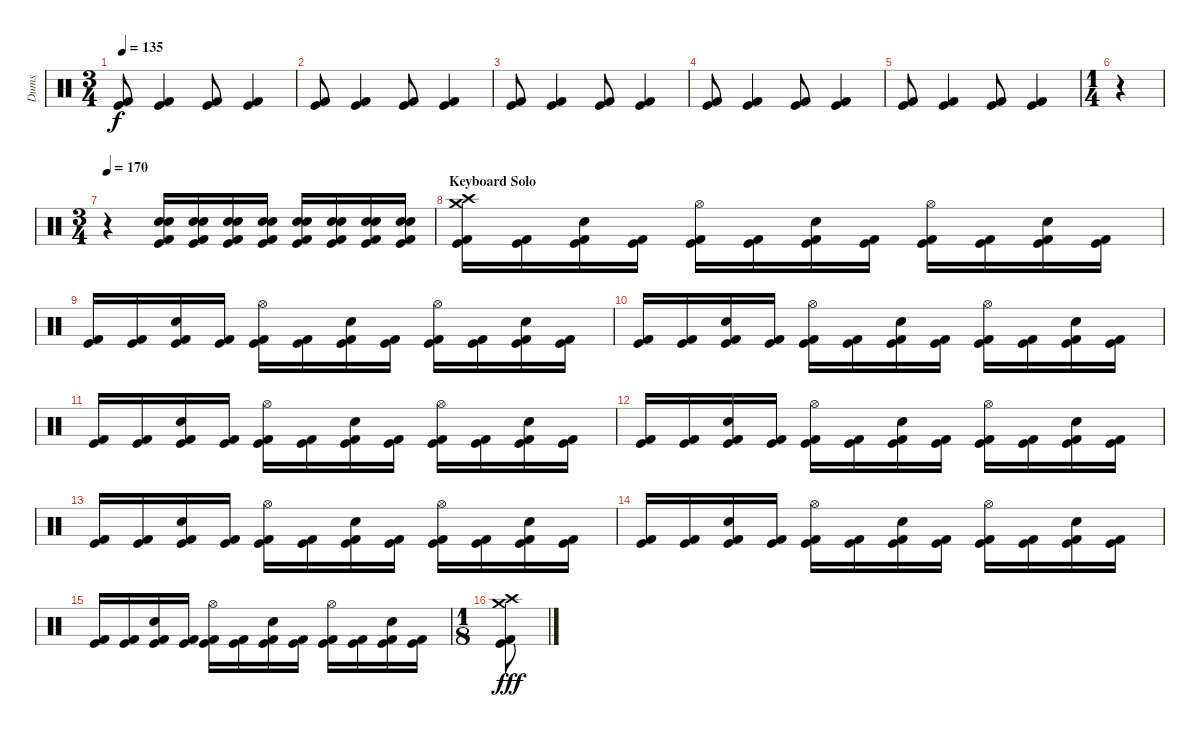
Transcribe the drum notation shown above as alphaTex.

\track ("Dums" "Dums") {instrument percussion}
\staff {score}
\articulation defaults
\ts (3 4)
\tempo 135
\clef neutral
\ks c
("Kick (hit)" "Kick (hit) 2").8{dy f} ("Kick (hit)" "Kick (hit) 2").4 ("Kick (hit)" "Kick (hit) 2").8 ("Kick (hit)" "Kick (hit) 2").4 |
("Kick (hit)" "Kick (hit) 2").8 ("Kick (hit)" "Kick (hit) 2").4 ("Kick (hit)" "Kick (hit) 2").8 ("Kick (hit)" "Kick (hit) 2").4 |
("Kick (hit)" "Kick (hit) 2").8 ("Kick (hit)" "Kick (hit) 2").4 ("Kick (hit)" "Kick (hit) 2").8 ("Kick (hit)" "Kick (hit) 2").4 |
("Kick (hit)" "Kick (hit) 2").8 ("Kick (hit)" "Kick (hit) 2").4 ("Kick (hit)" "Kick (hit) 2").8 ("Kick (hit)" "Kick (hit) 2").4 |
("Kick (hit)" "Kick (hit) 2").8 ("Kick (hit)" "Kick (hit) 2").4 ("Kick (hit)" "Kick (hit) 2").8 ("Kick (hit)" "Kick (hit) 2").4 |
\ts (1 4)
r.4 |
\ts (3 4)
\tempo 170
r.4 ("Electric Snare (hit)" "Snare (hit) 2" "Kick (hit) 2" "Kick (hit)").16 ("Electric Snare (hit)" "Snare (hit) 2" "Kick (hit) 2" "Kick (hit)").16 ("Electric Snare (hit)" "Snare (hit) 2" "Kick (hit) 2" "Kick (hit)").16 ("Electric Snare (hit)" "Snare (hit) 2" "Kick (hit) 2" "Kick (hit)").16 ("Electric Snare (hit)" "Snare (hit) 2" "Kick (hit) 2" "Kick (hit)").16 ("Electric Snare (hit)" "Snare (hit) 2" "Kick (hit) 2" "Kick (hit)").16 ("Electric Snare (hit)" "Snare (hit) 2" "Kick (hit) 2" "Kick (hit)").16 ("Electric Snare (hit)" "Snare (hit) 2" "Kick (hit) 2" "Kick (hit)").16 |
\section ("" "Keyboard Solo")
("Crash high (hit)" "Crash medium (hit)" "Kick (hit)" "Kick (hit) 2").16 ("Kick (hit)" "Kick (hit) 2").16 ("Snare (hit) 2" "Kick (hit)" "Kick (hit) 2").16 ("Kick (hit)" "Kick (hit) 2").16 ("Hi-Hat (open)" "Kick (hit)" "Kick (hit) 2").16 ("Kick (hit)" "Kick (hit) 2").16 ("Snare (hit) 2" "Kick (hit)" "Kick (hit) 2").16 ("Kick (hit)" "Kick (hit) 2").16 ("Hi-Hat (open)" "Kick (hit)" "Kick (hit) 2").16 ("Kick (hit)" "Kick (hit) 2").16 ("Snare (hit) 2" "Kick (hit)" "Kick (hit) 2").16 ("Kick (hit)" "Kick (hit) 2").16 |
("Kick (hit)" "Kick (hit) 2").16 ("Kick (hit)" "Kick (hit) 2").16 ("Snare (hit) 2" "Kick (hit)" "Kick (hit) 2").16 ("Kick (hit)" "Kick (hit) 2").16 ("Hi-Hat (open)" "Kick (hit)" "Kick (hit) 2").16 ("Kick (hit)" "Kick (hit) 2").16 ("Snare (hit) 2" "Kick (hit)" "Kick (hit) 2").16 ("Kick (hit)" "Kick (hit) 2").16 ("Hi-Hat (open)" "Kick (hit)" "Kick (hit) 2").16 ("Kick (hit)" "Kick (hit) 2").16 ("Snare (hit) 2" "Kick (hit)" "Kick (hit) 2").16 ("Kick (hit)" "Kick (hit) 2").16 |
("Kick (hit)" "Kick (hit) 2").16 ("Kick (hit)" "Kick (hit) 2").16 ("Snare (hit) 2" "Kick (hit)" "Kick (hit) 2").16 ("Kick (hit)" "Kick (hit) 2").16 ("Hi-Hat (open)" "Kick (hit)" "Kick (hit) 2").16 ("Kick (hit)" "Kick (hit) 2").16 ("Snare (hit) 2" "Kick (hit)" "Kick (hit) 2").16 ("Kick (hit)" "Kick (hit) 2").16 ("Hi-Hat (open)" "Kick (hit)" "Kick (hit) 2").16 ("Kick (hit)" "Kick (hit) 2").16 ("Snare (hit) 2" "Kick (hit)" "Kick (hit) 2").16 ("Kick (hit)" "Kick (hit) 2").16 |
("Kick (hit)" "Kick (hit) 2").16 ("Kick (hit)" "Kick (hit) 2").16 ("Snare (hit) 2" "Kick (hit)" "Kick (hit) 2").16 ("Kick (hit)" "Kick (hit) 2").16 ("Hi-Hat (open)" "Kick (hit)" "Kick (hit) 2").16 ("Kick (hit)" "Kick (hit) 2").16 ("Snare (hit) 2" "Kick (hit)" "Kick (hit) 2").16 ("Kick (hit)" "Kick (hit) 2").16 ("Hi-Hat (open)" "Kick (hit)" "Kick (hit) 2").16 ("Kick (hit)" "Kick (hit) 2").16 ("Snare (hit) 2" "Kick (hit)" "Kick (hit) 2").16 ("Kick (hit)" "Kick (hit) 2").16 |
("Kick (hit)" "Kick (hit) 2").16 ("Kick (hit)" "Kick (hit) 2").16 ("Snare (hit) 2" "Kick (hit)" "Kick (hit) 2").16 ("Kick (hit)" "Kick (hit) 2").16 ("Hi-Hat (open)" "Kick (hit)" "Kick (hit) 2").16 ("Kick (hit)" "Kick (hit) 2").16 ("Snare (hit) 2" "Kick (hit)" "Kick (hit) 2").16 ("Kick (hit)" "Kick (hit) 2").16 ("Hi-Hat (open)" "Kick (hit)" "Kick (hit) 2").16 ("Kick (hit)" "Kick (hit) 2").16 ("Snare (hit) 2" "Kick (hit)" "Kick (hit) 2").16 ("Kick (hit)" "Kick (hit) 2").16 |
("Kick (hit)" "Kick (hit) 2").16 ("Kick (hit)" "Kick (hit) 2").16 ("Snare (hit) 2" "Kick (hit)" "Kick (hit) 2").16 ("Kick (hit)" "Kick (hit) 2").16 ("Hi-Hat (open)" "Kick (hit)" "Kick (hit) 2").16 ("Kick (hit)" "Kick (hit) 2").16 ("Snare (hit) 2" "Kick (hit)" "Kick (hit) 2").16 ("Kick (hit)" "Kick (hit) 2").16 ("Hi-Hat (open)" "Kick (hit)" "Kick (hit) 2").16 ("Kick (hit)" "Kick (hit) 2").16 ("Snare (hit) 2" "Kick (hit)" "Kick (hit) 2").16 ("Kick (hit)" "Kick (hit) 2").16 |
("Kick (hit)" "Kick (hit) 2").16 ("Kick (hit)" "Kick (hit) 2").16 ("Snare (hit) 2" "Kick (hit)" "Kick (hit) 2").16 ("Kick (hit)" "Kick (hit) 2").16 ("Hi-Hat (open)" "Kick (hit)" "Kick (hit) 2").16 ("Kick (hit)" "Kick (hit) 2").16 ("Snare (hit) 2" "Kick (hit)" "Kick (hit) 2").16 ("Kick (hit)" "Kick (hit) 2").16 ("Hi-Hat (open)" "Kick (hit)" "Kick (hit) 2").16 ("Kick (hit)" "Kick (hit) 2").16 ("Snare (hit) 2" "Kick (hit)" "Kick (hit) 2").16 ("Kick (hit)" "Kick (hit) 2").16 |
("Kick (hit)" "Kick (hit) 2").16 ("Kick (hit)" "Kick (hit) 2").16 ("Snare (hit) 2" "Kick (hit)" "Kick (hit) 2").16 ("Kick (hit)" "Kick (hit) 2").16 ("Hi-Hat (open)" "Kick (hit)" "Kick (hit) 2").16 ("Kick (hit)" "Kick (hit) 2").16 ("Snare (hit) 2" "Kick (hit)" "Kick (hit) 2").16 ("Kick (hit)" "Kick (hit) 2").16 ("Hi-Hat (open)" "Kick (hit)" "Kick (hit) 2").16 ("Kick (hit)" "Kick (hit) 2").16 ("Snare (hit) 2" "Kick (hit)" "Kick (hit) 2").16 ("Kick (hit)" "Kick (hit) 2").16 |
\ts (1 8)
("Crash high (hit)" "Crash medium (hit)" "Kick (hit)" "Kick (hit) 2").8{dy fff}
